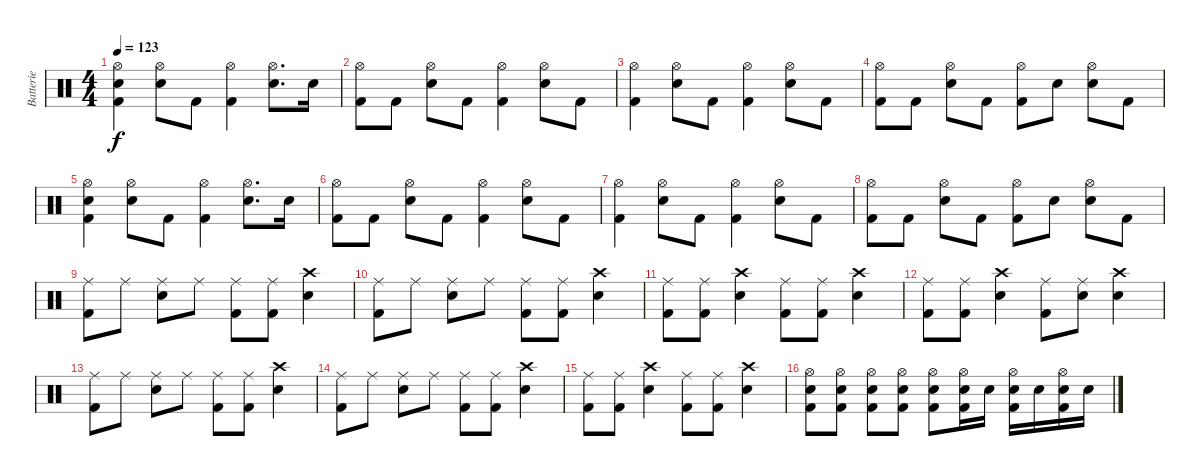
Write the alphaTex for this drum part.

\track ("Batterie" "Batterie") {instrument percussion}
\staff {score}
\articulation defaults
\ts (4 4)
\tempo 123
\clef neutral
\ks c
("Hi-Hat (open)" "Snare (hit) 2" "Kick (hit) 2").4{dy f} ("Hi-Hat (open)" "Snare (hit) 2").8 "Kick (hit) 2".8 ("Hi-Hat (open)" "Kick (hit) 2").4 ("Hi-Hat (open)" "Snare (hit) 2").8{d} "Snare (hit) 2".16 |
("Hi-Hat (open)" "Kick (hit) 2").8 "Kick (hit) 2".8 ("Hi-Hat (open)" "Snare (hit) 2").8 "Kick (hit) 2".8 ("Hi-Hat (open)" "Kick (hit) 2").4 ("Hi-Hat (open)" "Snare (hit) 2").8 "Kick (hit) 2".8 |
("Hi-Hat (open)" "Kick (hit) 2").4 ("Hi-Hat (open)" "Snare (hit) 2").8 "Kick (hit) 2".8 ("Hi-Hat (open)" "Kick (hit) 2").4 ("Hi-Hat (open)" "Snare (hit) 2").8 "Kick (hit) 2".8 |
("Hi-Hat (open)" "Kick (hit) 2").8 "Kick (hit) 2".8 ("Hi-Hat (open)" "Snare (hit) 2").8 "Kick (hit) 2".8 ("Hi-Hat (open)" "Kick (hit) 2").8 "Snare (hit) 2".8 ("Hi-Hat (open)" "Snare (hit) 2").8 "Kick (hit) 2".8 |
("Hi-Hat (open)" "Snare (hit) 2" "Kick (hit) 2").4 ("Hi-Hat (open)" "Snare (hit) 2").8 "Kick (hit) 2".8 ("Hi-Hat (open)" "Kick (hit) 2").4 ("Hi-Hat (open)" "Snare (hit) 2").8{d} "Snare (hit) 2".16 |
("Hi-Hat (open)" "Kick (hit) 2").8 "Kick (hit) 2".8 ("Hi-Hat (open)" "Snare (hit) 2").8 "Kick (hit) 2".8 ("Hi-Hat (open)" "Kick (hit) 2").4 ("Hi-Hat (open)" "Snare (hit) 2").8 "Kick (hit) 2".8 |
("Hi-Hat (open)" "Kick (hit) 2").4 ("Hi-Hat (open)" "Snare (hit) 2").8 "Kick (hit) 2".8 ("Hi-Hat (open)" "Kick (hit) 2").4 ("Hi-Hat (open)" "Snare (hit) 2").8 "Kick (hit) 2".8 |
("Hi-Hat (open)" "Kick (hit) 2").8 "Kick (hit) 2".8 ("Hi-Hat (open)" "Snare (hit) 2").8 "Kick (hit) 2".8 ("Hi-Hat (open)" "Kick (hit) 2").8 "Snare (hit) 2".8 ("Hi-Hat (open)" "Snare (hit) 2").8 "Kick (hit) 2".8 |
("Ride (middle)" "Kick (hit) 2").8 "Ride (middle)".8 ("Ride (middle)" "Snare (hit) 2").8 "Ride (middle)".8 ("Ride (middle)" "Kick (hit) 2").8 ("Ride (middle)" "Kick (hit) 2").8 ("Crash high (hit)" "Snare (hit) 2").4 |
("Ride (middle)" "Kick (hit) 2").8 "Ride (middle)".8 ("Ride (middle)" "Snare (hit) 2").8 "Ride (middle)".8 ("Ride (middle)" "Kick (hit) 2").8 ("Ride (middle)" "Kick (hit) 2").8 ("Crash high (hit)" "Snare (hit) 2").4 |
("Ride (middle)" "Kick (hit) 2").8 ("Ride (middle)" "Kick (hit) 2").8 ("Crash high (hit)" "Snare (hit) 2").4 ("Ride (middle)" "Kick (hit) 2").8 ("Ride (middle)" "Kick (hit) 2").8 ("Crash high (hit)" "Snare (hit) 2").4 |
("Ride (middle)" "Kick (hit) 2").8 ("Ride (middle)" "Kick (hit) 2").8 ("Crash high (hit)" "Snare (hit) 2").4 ("Ride (middle)" "Kick (hit) 2").8 ("Ride (middle)" "Snare (hit) 2").8 ("Crash high (hit)" "Snare (hit) 2").4 |
("Ride (middle)" "Kick (hit) 2").8 "Ride (middle)".8 ("Ride (middle)" "Snare (hit) 2").8 "Ride (middle)".8 ("Ride (middle)" "Kick (hit) 2").8 ("Ride (middle)" "Kick (hit) 2").8 ("Crash high (hit)" "Snare (hit) 2").4 |
("Ride (middle)" "Kick (hit) 2").8 "Ride (middle)".8 ("Ride (middle)" "Snare (hit) 2").8 "Ride (middle)".8 ("Ride (middle)" "Kick (hit) 2").8 ("Ride (middle)" "Kick (hit) 2").8 ("Crash high (hit)" "Snare (hit) 2").4 |
("Ride (middle)" "Kick (hit) 2").8 ("Ride (middle)" "Kick (hit) 2").8 ("Crash high (hit)" "Snare (hit) 2").4 ("Ride (middle)" "Kick (hit) 2").8 ("Ride (middle)" "Kick (hit) 2").8 ("Crash high (hit)" "Snare (hit) 2").4{volume 6} |
("Hi-Hat (open)" "Snare (hit) 2" "Kick (hit) 2").8{volume 16} ("Hi-Hat (open)" "Snare (hit) 2" "Kick (hit) 2").8 ("Hi-Hat (open)" "Snare (hit) 2" "Kick (hit) 2").8 ("Hi-Hat (open)" "Snare (hit) 2" "Kick (hit) 2").8 ("Hi-Hat (open)" "Snare (hit) 2" "Kick (hit) 2").8 ("Hi-Hat (open)" "Snare (hit) 2" "Kick (hit) 2").16 "Snare (hit) 2".16 ("Hi-Hat (open)" "Snare (hit) 2" "Kick (hit) 2").16 "Snare (hit) 2".16 ("Hi-Hat (open)" "Snare (hit) 2" "Kick (hit) 2").16 "Snare (hit) 2".16
